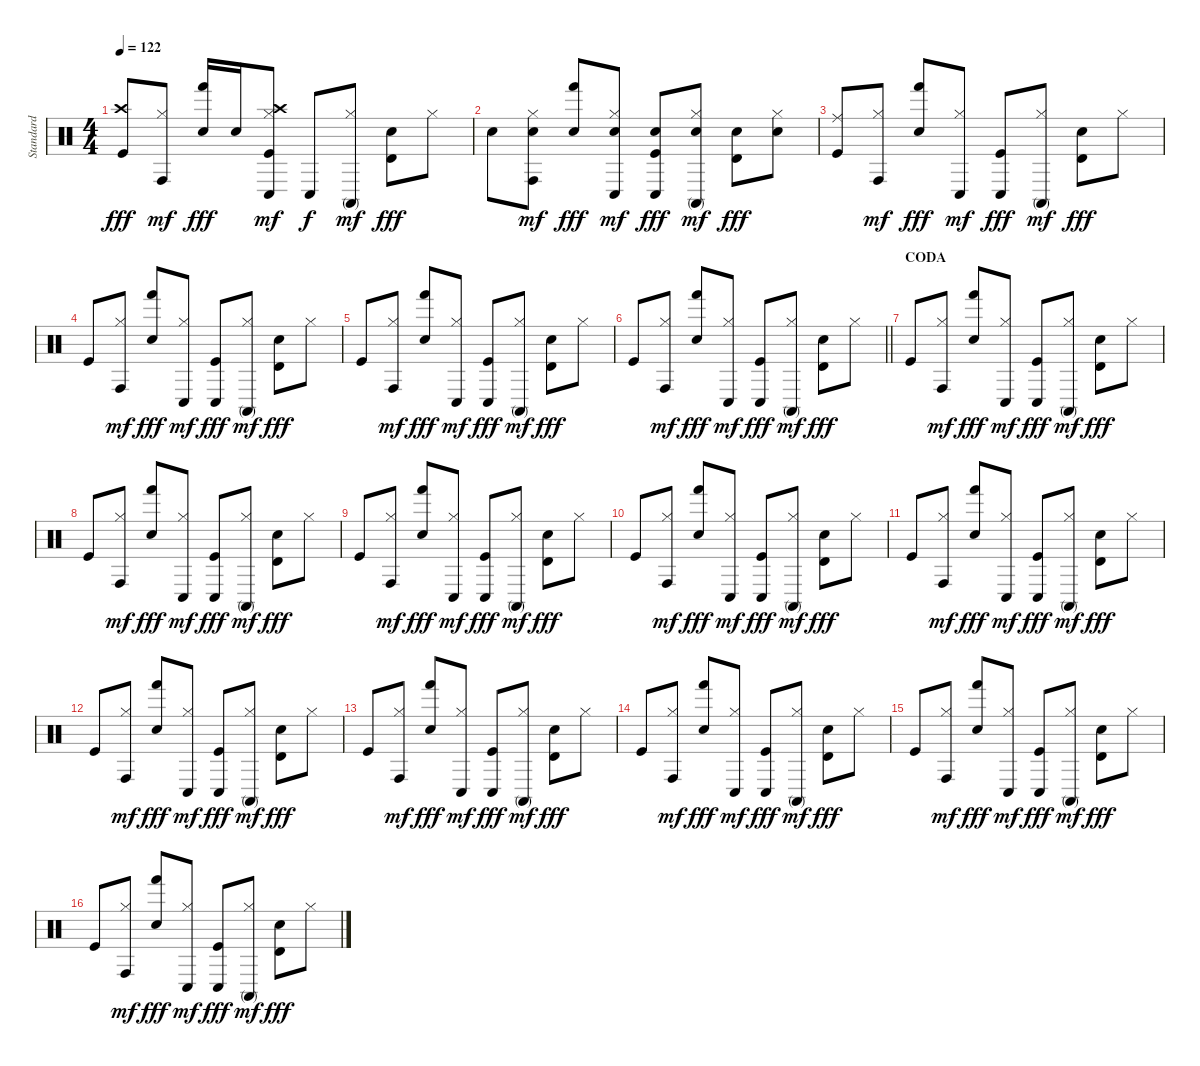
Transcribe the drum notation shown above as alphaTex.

\track ("Standard" "Standard") {instrument percussion}
\staff {score}
\articulation defaults
\ts (4 4)
\tempo 122
\clef neutral
\ks c
("Kick (hit)" "Crash high (hit)").8{dy fff} ("Hi-Hat (closed)" "Conga high (hit)").8{dy mf} ("Electric Snare (hit)" "Hand (hit)").16{dy fff} "Electric Snare (hit)".16 ("Kick (hit)" "Hi-Hat (closed)" "Crash high (hit)" "Conga low (hit)").8{dy mf} "Conga low (hit)".8{dy f} ("Hi-Hat (closed)" "Conga high (mute)").8{dy mf} ("Electric Snare (hit)" "Timbale high (hit)").8{dy fff} "Hi-Hat (closed)".8 |
"Electric Snare (hit)".8 ("Electric Snare (hit)" "Hi-Hat (closed)" "Conga high (hit)").8{dy mf} ("Electric Snare (hit)" "Hand (hit)").8{dy fff} ("Electric Snare (hit)" "Hi-Hat (closed)" "Conga low (hit)").8{dy mf} ("Kick (hit)" "Electric Snare (hit)" "Conga low (hit)").8{dy fff} ("Electric Snare (hit)" "Hi-Hat (closed)" "Conga high (mute)").8{dy mf} ("Electric Snare (hit)" "Timbale high (hit)").8{dy fff} ("Electric Snare (hit)" "Hi-Hat (closed)").8 |
("Kick (hit)" "Ride (middle)").8 ("Hi-Hat (closed)" "Conga high (hit)").8{dy mf} ("Electric Snare (hit)" "Hand (hit)").8{dy fff} ("Hi-Hat (closed)" "Conga low (hit)").8{dy mf} ("Kick (hit)" "Conga low (hit)").8{dy fff} ("Hi-Hat (closed)" "Conga high (mute)").8{dy mf} ("Electric Snare (hit)" "Timbale high (hit)").8{dy fff} "Hi-Hat (closed)".8 |
"Kick (hit)".8 ("Hi-Hat (closed)" "Conga high (hit)").8{dy mf} ("Electric Snare (hit)" "Hand (hit)").8{dy fff} ("Hi-Hat (closed)" "Conga low (hit)").8{dy mf} ("Kick (hit)" "Conga low (hit)").8{dy fff} ("Hi-Hat (closed)" "Conga high (mute)").8{dy mf} ("Electric Snare (hit)" "Timbale high (hit)").8{dy fff} "Hi-Hat (closed)".8 |
"Kick (hit)".8 ("Hi-Hat (closed)" "Conga high (hit)").8{dy mf} ("Electric Snare (hit)" "Hand (hit)").8{dy fff} ("Hi-Hat (closed)" "Conga low (hit)").8{dy mf} ("Kick (hit)" "Conga low (hit)").8{dy fff} ("Hi-Hat (closed)" "Conga high (mute)").8{dy mf} ("Electric Snare (hit)" "Timbale high (hit)").8{dy fff} "Hi-Hat (closed)".8 |
\barLineRight lightlight "Kick (hit)".8
("Hi-Hat (closed)" "Conga high (hit)").8{dy mf} ("Electric Snare (hit)" "Hand (hit)").8{dy fff} ("Hi-Hat (closed)" "Conga low (hit)").8{dy mf} ("Kick (hit)" "Conga low (hit)").8{dy fff} ("Hi-Hat (closed)" "Conga high (mute)").8{dy mf} ("Electric Snare (hit)" "Timbale high (hit)").8{dy fff} "Hi-Hat (closed)".8 |
\section ("" "CODA")
"Kick (hit)".8 ("Hi-Hat (closed)" "Conga high (hit)").8{dy mf} ("Electric Snare (hit)" "Hand (hit)").8{dy fff} ("Hi-Hat (closed)" "Conga low (hit)").8{dy mf} ("Kick (hit)" "Conga low (hit)").8{dy fff} ("Hi-Hat (closed)" "Conga high (mute)").8{dy mf} ("Electric Snare (hit)" "Timbale high (hit)").8{dy fff} "Hi-Hat (closed)".8 |
"Kick (hit)".8 ("Hi-Hat (closed)" "Conga high (hit)").8{dy mf} ("Electric Snare (hit)" "Hand (hit)").8{dy fff} ("Hi-Hat (closed)" "Conga low (hit)").8{dy mf} ("Kick (hit)" "Conga low (hit)").8{dy fff} ("Hi-Hat (closed)" "Conga high (mute)").8{dy mf} ("Electric Snare (hit)" "Timbale high (hit)").8{dy fff} "Hi-Hat (closed)".8 |
"Kick (hit)".8 ("Hi-Hat (closed)" "Conga high (hit)").8{dy mf} ("Electric Snare (hit)" "Hand (hit)").8{dy fff} ("Hi-Hat (closed)" "Conga low (hit)").8{dy mf} ("Kick (hit)" "Conga low (hit)").8{dy fff} ("Hi-Hat (closed)" "Conga high (mute)").8{dy mf} ("Electric Snare (hit)" "Timbale high (hit)").8{dy fff} "Hi-Hat (closed)".8 |
"Kick (hit)".8 ("Hi-Hat (closed)" "Conga high (hit)").8{dy mf} ("Electric Snare (hit)" "Hand (hit)").8{dy fff} ("Hi-Hat (closed)" "Conga low (hit)").8{dy mf} ("Kick (hit)" "Conga low (hit)").8{dy fff} ("Hi-Hat (closed)" "Conga high (mute)").8{dy mf} ("Electric Snare (hit)" "Timbale high (hit)").8{dy fff} "Hi-Hat (closed)".8 |
"Kick (hit)".8 ("Hi-Hat (closed)" "Conga high (hit)").8{dy mf} ("Electric Snare (hit)" "Hand (hit)").8{dy fff} ("Hi-Hat (closed)" "Conga low (hit)").8{dy mf} ("Kick (hit)" "Conga low (hit)").8{dy fff} ("Hi-Hat (closed)" "Conga high (mute)").8{dy mf} ("Electric Snare (hit)" "Timbale high (hit)").8{dy fff} "Hi-Hat (closed)".8 |
"Kick (hit)".8 ("Hi-Hat (closed)" "Conga high (hit)").8{dy mf} ("Electric Snare (hit)" "Hand (hit)").8{dy fff} ("Hi-Hat (closed)" "Conga low (hit)").8{dy mf} ("Kick (hit)" "Conga low (hit)").8{dy fff} ("Hi-Hat (closed)" "Conga high (mute)").8{dy mf} ("Electric Snare (hit)" "Timbale high (hit)").8{dy fff} "Hi-Hat (closed)".8 |
"Kick (hit)".8 ("Hi-Hat (closed)" "Conga high (hit)").8{dy mf} ("Electric Snare (hit)" "Hand (hit)").8{dy fff} ("Hi-Hat (closed)" "Conga low (hit)").8{dy mf} ("Kick (hit)" "Conga low (hit)").8{dy fff} ("Hi-Hat (closed)" "Conga high (mute)").8{dy mf} ("Electric Snare (hit)" "Timbale high (hit)").8{dy fff} "Hi-Hat (closed)".8 |
"Kick (hit)".8 ("Hi-Hat (closed)" "Conga high (hit)").8{dy mf} ("Electric Snare (hit)" "Hand (hit)").8{dy fff} ("Hi-Hat (closed)" "Conga low (hit)").8{dy mf} ("Kick (hit)" "Conga low (hit)").8{dy fff} ("Hi-Hat (closed)" "Conga high (mute)").8{dy mf} ("Electric Snare (hit)" "Timbale high (hit)").8{dy fff} "Hi-Hat (closed)".8 |
"Kick (hit)".8 ("Hi-Hat (closed)" "Conga high (hit)").8{dy mf} ("Electric Snare (hit)" "Hand (hit)").8{dy fff} ("Hi-Hat (closed)" "Conga low (hit)").8{dy mf} ("Kick (hit)" "Conga low (hit)").8{dy fff} ("Hi-Hat (closed)" "Conga high (mute)").8{dy mf} ("Electric Snare (hit)" "Timbale high (hit)").8{dy fff} "Hi-Hat (closed)".8 |
"Kick (hit)".8 ("Hi-Hat (closed)" "Conga high (hit)").8{dy mf} ("Electric Snare (hit)" "Hand (hit)").8{dy fff} ("Hi-Hat (closed)" "Conga low (hit)").8{dy mf} ("Kick (hit)" "Conga low (hit)").8{dy fff} ("Hi-Hat (closed)" "Conga high (mute)").8{dy mf} ("Electric Snare (hit)" "Timbale high (hit)").8{dy fff} "Hi-Hat (closed)".8
